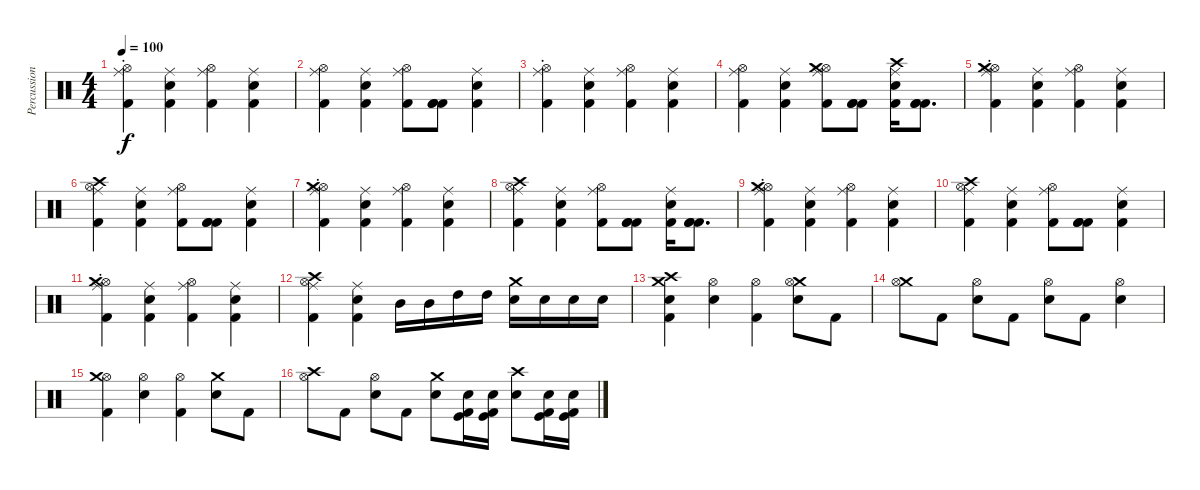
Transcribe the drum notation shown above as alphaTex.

\track ("Percussions" "Percussion") {instrument percussion}
\staff {score}
\articulation defaults
\ts (4 4)
\tempo 100
\clef neutral
\ks c
("Ride (middle)" "Kick (hit) 2" "Hi-Hat (open)"{st}).4{dy f} ("Snare (hit) 2" "Kick (hit) 2" "Ride (middle)").4 ("Kick (hit) 2" "Ride (middle)" "Hi-Hat (open)").4 ("Kick (hit) 2" "Snare (hit) 2" "Ride (middle)").4 |
("Kick (hit) 2" "Ride (middle)" "Hi-Hat (open)").4 ("Kick (hit) 2" "Snare (hit) 2" "Ride (middle)").4 ("Kick (hit) 2" "Ride (middle)" "Hi-Hat (open)").8 ("Kick (hit) 2" "Kick (hit) 2" "Kick (hit) 2").8 ("Kick (hit) 2" "Snare (hit) 2" "Ride (middle)").4 |
("Ride (middle)" "Kick (hit) 2" "Hi-Hat (open)"{st}).4 ("Snare (hit) 2" "Kick (hit) 2" "Ride (middle)").4 ("Kick (hit) 2" "Ride (middle)" "Hi-Hat (open)").4 ("Kick (hit) 2" "Snare (hit) 2" "Ride (middle)").4 |
("Kick (hit) 2" "Ride (middle)" "Hi-Hat (open)").4 ("Kick (hit) 2" "Snare (hit) 2" "Ride (middle)").4 ("Kick (hit) 2" "Ride (middle)" "Hi-Hat (open)" "Crash medium (hit)").8 ("Kick (hit) 2" "Kick (hit) 2" "Kick (hit) 2").8 ("Kick (hit) 2" "Snare (hit) 2" "Ride (middle)" "Crash high (hit)").16 ("Kick (hit) 2" "Kick (hit) 2" "Kick (hit) 2").8{d} |
("Ride (middle)" "Kick (hit) 2" "Hi-Hat (open)"{st} "Crash medium (hit)").4 ("Snare (hit) 2" "Kick (hit) 2" "Ride (middle)").4 ("Kick (hit) 2" "Ride (middle)" "Hi-Hat (open)").4 ("Kick (hit) 2" "Snare (hit) 2" "Ride (middle)").4 |
("Kick (hit) 2" "Ride (middle)" "Hi-Hat (open)" "Crash high (hit)").4 ("Kick (hit) 2" "Snare (hit) 2" "Ride (middle)").4 ("Kick (hit) 2" "Ride (middle)" "Hi-Hat (open)").8 ("Kick (hit) 2" "Kick (hit) 2" "Kick (hit) 2").8 ("Kick (hit) 2" "Snare (hit) 2" "Ride (middle)").4 |
("Ride (middle)" "Kick (hit) 2" "Hi-Hat (open)"{st} "Crash medium (hit)").4 ("Snare (hit) 2" "Kick (hit) 2" "Ride (middle)").4 ("Kick (hit) 2" "Ride (middle)" "Hi-Hat (open)").4 ("Kick (hit) 2" "Snare (hit) 2" "Ride (middle)").4 |
("Kick (hit) 2" "Ride (middle)" "Hi-Hat (open)" "Crash high (hit)").4 ("Kick (hit) 2" "Snare (hit) 2" "Ride (middle)").4 ("Kick (hit) 2" "Ride (middle)" "Hi-Hat (open)").8 ("Kick (hit) 2" "Kick (hit) 2" "Kick (hit) 2").8 ("Kick (hit) 2" "Snare (hit) 2" "Ride (middle)").16 ("Kick (hit) 2" "Kick (hit) 2" "Kick (hit) 2").8{d} |
("Ride (middle)" "Kick (hit) 2" "Hi-Hat (open)"{st} "Crash medium (hit)").4 ("Snare (hit) 2" "Kick (hit) 2" "Ride (middle)").4 ("Kick (hit) 2" "Ride (middle)" "Hi-Hat (open)").4 ("Kick (hit) 2" "Snare (hit) 2" "Ride (middle)").4 |
("Kick (hit) 2" "Ride (middle)" "Hi-Hat (open)" "Crash high (hit)").4 ("Kick (hit) 2" "Snare (hit) 2" "Ride (middle)").4 ("Kick (hit) 2" "Ride (middle)" "Hi-Hat (open)").8 ("Kick (hit) 2" "Kick (hit) 2" "Kick (hit) 2").8 ("Kick (hit) 2" "Snare (hit) 2" "Ride (middle)").4 |
("Ride (middle)" "Kick (hit) 2" "Hi-Hat (open)"{st} "Crash medium (hit)").4 ("Snare (hit) 2" "Kick (hit) 2" "Ride (middle)").4 ("Kick (hit) 2" "Ride (middle)" "Hi-Hat (open)").4 ("Kick (hit) 2" "Snare (hit) 2" "Ride (middle)").4 |
("Kick (hit) 2" "Ride (middle)" "Hi-Hat (open)" "Crash high (hit)").4 ("Kick (hit) 2" "Snare (hit) 2" "Ride (middle)").4 "Mid Tom (hit)".16 "Mid Tom (hit)".16 "High Tom (hit)".16 "High Tom (hit)".16 ("Crash medium (hit)" "Snare (hit) 2").16 "Snare (hit) 2".16 "Snare (hit) 2".16 "Snare (hit) 2".16 |
("Crash medium (hit)" "Crash high (hit)" "Snare (hit) 2" "Kick (hit) 2").4 ("Hi-Hat (open)" "Snare (hit) 2").4 ("Hi-Hat (open)" "Kick (hit) 2").4 ("Crash medium (hit)" "Hi-Hat (open)" "Snare (hit) 2").8 "Kick (hit) 2".8 |
("Crash medium (hit)" "Hi-Hat (open)").8 "Kick (hit) 2".8 ("Hi-Hat (open)" "Snare (hit) 2").8 "Kick (hit) 2".8 ("Hi-Hat (open)" "Snare (hit) 2").8 "Kick (hit) 2".8 ("Hi-Hat (open)" "Snare (hit) 2").4 |
("Hi-Hat (open)" "Crash medium (hit)" "Kick (hit) 2").4 ("Hi-Hat (open)" "Snare (hit) 2").4 ("Hi-Hat (open)" "Kick (hit) 2").4 ("Crash medium (hit)" "Snare (hit) 2").8 "Kick (hit) 2".8 |
("Crash high (hit)" "Hi-Hat (open)").8 "Kick (hit) 2".8 ("Hi-Hat (open)" "Snare (hit) 2").8 "Kick (hit) 2".8 ("Crash medium (hit)" "Snare (hit) 2").8 ("Snare (hit) 2" "Kick (hit)" "Kick (hit) 2").16 ("Snare (hit) 2" "Kick (hit)" "Kick (hit) 2").16 ("Crash high (hit)" "Snare (hit) 2").8 ("Snare (hit) 2" "Kick (hit)" "Kick (hit) 2").16 ("Snare (hit) 2" "Kick (hit)" "Kick (hit) 2").16
